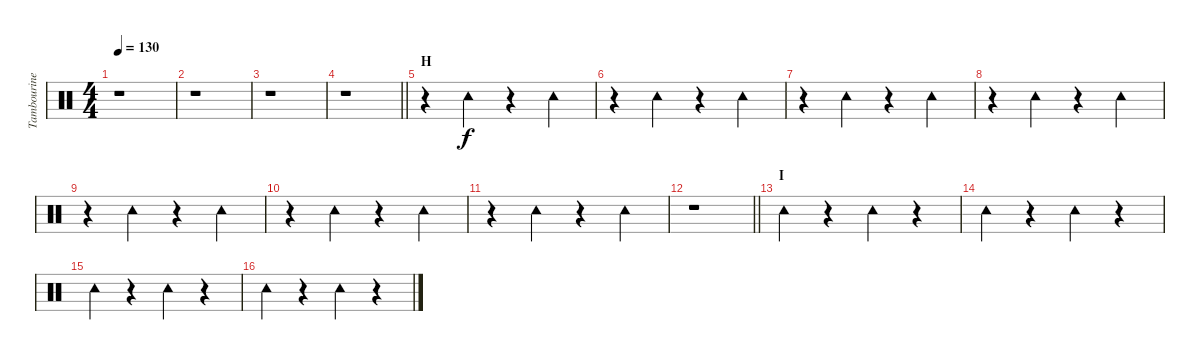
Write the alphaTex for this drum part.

\track ("Tambourine" "Tambourine") {instrument percussion}
\staff {score}
\articulation defaults
\ts (4 4)
\tempo 130
\clef neutral
\ks c
r.1{dy f} |
r.1 |
r.1 |
\barLineRight lightlight
r.1 |
\section ("" "H")
r.4 "Tambourine (hit)".4 r.4 "Tambourine (hit)".4 |
r.4 "Tambourine (hit)".4 r.4 "Tambourine (hit)".4 |
r.4 "Tambourine (hit)".4 r.4 "Tambourine (hit)".4 |
r.4 "Tambourine (hit)".4 r.4 "Tambourine (hit)".4 |
r.4 "Tambourine (hit)".4 r.4 "Tambourine (hit)".4 |
r.4 "Tambourine (hit)".4 r.4 "Tambourine (hit)".4 |
r.4 "Tambourine (hit)".4 r.4 "Tambourine (hit)".4 |
\barLineRight lightlight
r.1 |
\section ("" "I")
"Tambourine (hit)".4 r.4 "Tambourine (hit)".4 r.4 |
"Tambourine (hit)".4 r.4 "Tambourine (hit)".4 r.4 |
"Tambourine (hit)".4 r.4 "Tambourine (hit)".4 r.4 |
"Tambourine (hit)".4 r.4 "Tambourine (hit)".4 r.4
